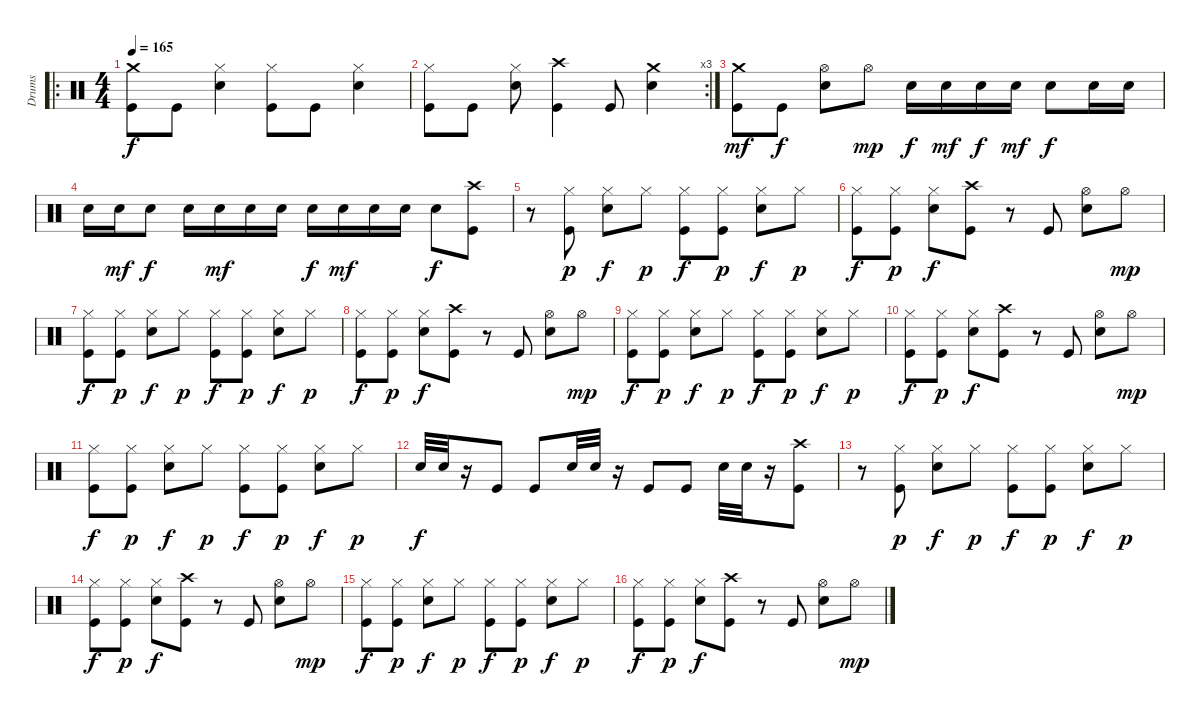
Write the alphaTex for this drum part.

\track ("Drums" "Drums") {instrument percussion}
\staff {score}
\articulation defaults
\ro
\ts (4 4)
\tempo 165
\clef neutral
\ks c
("Crash medium (hit)" "Kick (hit)").8{dy f} "Kick (hit)".8 ("Hi-Hat (closed)" "Snare (hit) 2").4 ("Hi-Hat (closed)" "Kick (hit)").8 "Kick (hit)".8 ("Hi-Hat (closed)" "Snare (hit) 2").4 |
\rc 3
("Hi-Hat (closed)" "Kick (hit)").8 "Kick (hit)".8 ("Hi-Hat (closed)" "Snare (hit) 2").8 ("Crash high (hit)" "Kick (hit)").4 "Kick (hit)".8 ("Crash medium (hit)" "Snare (hit) 2").4 |
("Crash medium (hit)" "Kick (hit)").8{dy mf} "Kick (hit)".8{dy f} ("Hi-Hat (open)" "Snare (hit) 2").8 "Hi-Hat (open)".8{dy mp} "Snare (hit) 2".16{dy f} "Snare (hit) 2".16{dy mf} "Snare (hit) 2".16{dy f} "Snare (hit) 2".16{dy mf} "Snare (hit) 2".8{dy f} "Snare (hit) 2".16 "Snare (hit) 2".16 |
"Snare (hit) 2".16 "Snare (hit) 2".16{dy mf} "Snare (hit) 2".8{dy f} "Snare (hit) 2".16 "Snare (hit) 2".16{dy mf} "Snare (hit) 2".16 "Snare (hit) 2".16 "Snare (hit) 2".16{dy f} "Snare (hit) 2".16{dy mf} "Snare (hit) 2".16 "Snare (hit) 2".16 "Snare (hit) 2".8{dy f} ("Crash high (hit)" "Kick (hit)").8 |
r.8 ("Hi-Hat (closed)" "Kick (hit)").8{dy p} ("Hi-Hat (closed)" "Snare (hit) 2").8{dy f} "Hi-Hat (closed)".8{dy p} ("Hi-Hat (closed)" "Kick (hit)").8{dy f} ("Hi-Hat (closed)" "Kick (hit)").8{dy p} ("Hi-Hat (closed)" "Snare (hit) 2").8{dy f} "Hi-Hat (closed)".8{dy p} |
("Hi-Hat (closed)" "Kick (hit)").8{dy f} ("Hi-Hat (closed)" "Kick (hit)").8{dy p} ("Hi-Hat (closed)" "Snare (hit) 2").8{dy f} ("Crash high (hit)" "Kick (hit)").8 r.8 "Kick (hit)".8 ("Hi-Hat (open)" "Snare (hit) 2").8 "Hi-Hat (open)".8{dy mp} |
("Hi-Hat (closed)" "Kick (hit)").8{dy f} ("Hi-Hat (closed)" "Kick (hit)").8{dy p} ("Hi-Hat (closed)" "Snare (hit) 2").8{dy f} "Hi-Hat (closed)".8{dy p} ("Hi-Hat (closed)" "Kick (hit)").8{dy f} ("Hi-Hat (closed)" "Kick (hit)").8{dy p} ("Hi-Hat (closed)" "Snare (hit) 2").8{dy f} "Hi-Hat (closed)".8{dy p} |
("Hi-Hat (closed)" "Kick (hit)").8{dy f} ("Hi-Hat (closed)" "Kick (hit)").8{dy p} ("Hi-Hat (closed)" "Snare (hit) 2").8{dy f} ("Crash high (hit)" "Kick (hit)").8 r.8 "Kick (hit)".8 ("Hi-Hat (open)" "Snare (hit) 2").8 "Hi-Hat (open)".8{dy mp} |
("Hi-Hat (closed)" "Kick (hit)").8{dy f} ("Hi-Hat (closed)" "Kick (hit)").8{dy p} ("Hi-Hat (closed)" "Snare (hit) 2").8{dy f} "Hi-Hat (closed)".8{dy p} ("Hi-Hat (closed)" "Kick (hit)").8{dy f} ("Hi-Hat (closed)" "Kick (hit)").8{dy p} ("Hi-Hat (closed)" "Snare (hit) 2").8{dy f} "Hi-Hat (closed)".8{dy p} |
("Hi-Hat (closed)" "Kick (hit)").8{dy f} ("Hi-Hat (closed)" "Kick (hit)").8{dy p} ("Hi-Hat (closed)" "Snare (hit) 2").8{dy f} ("Crash high (hit)" "Kick (hit)").8 r.8 "Kick (hit)".8 ("Hi-Hat (open)" "Snare (hit) 2").8 "Hi-Hat (open)".8{dy mp} |
("Hi-Hat (closed)" "Kick (hit)").8{dy f} ("Hi-Hat (closed)" "Kick (hit)").8{dy p} ("Hi-Hat (closed)" "Snare (hit) 2").8{dy f} "Hi-Hat (closed)".8{dy p} ("Hi-Hat (closed)" "Kick (hit)").8{dy f} ("Hi-Hat (closed)" "Kick (hit)").8{dy p} ("Hi-Hat (closed)" "Snare (hit) 2").8{dy f} "Hi-Hat (closed)".8{dy p} |
"Snare (hit) 2".32{dy f} "Snare (hit) 2".32 r.16 "Kick (hit)".8 "Kick (hit)".8 "Snare (hit) 2".32 "Snare (hit) 2".32 r.16 "Kick (hit)".8 "Kick (hit)".8 "Snare (hit) 2".32 "Snare (hit) 2".32 r.16 ("Crash high (hit)" "Kick (hit)").8 |
r.8 ("Hi-Hat (closed)" "Kick (hit)").8{dy p} ("Hi-Hat (closed)" "Snare (hit) 2").8{dy f} "Hi-Hat (closed)".8{dy p} ("Hi-Hat (closed)" "Kick (hit)").8{dy f} ("Hi-Hat (closed)" "Kick (hit)").8{dy p} ("Hi-Hat (closed)" "Snare (hit) 2").8{dy f} "Hi-Hat (closed)".8{dy p} |
("Hi-Hat (closed)" "Kick (hit)").8{dy f} ("Hi-Hat (closed)" "Kick (hit)").8{dy p} ("Hi-Hat (closed)" "Snare (hit) 2").8{dy f} ("Crash high (hit)" "Kick (hit)").8 r.8 "Kick (hit)".8 ("Hi-Hat (open)" "Snare (hit) 2").8 "Hi-Hat (open)".8{dy mp} |
("Hi-Hat (closed)" "Kick (hit)").8{dy f} ("Hi-Hat (closed)" "Kick (hit)").8{dy p} ("Hi-Hat (closed)" "Snare (hit) 2").8{dy f} "Hi-Hat (closed)".8{dy p} ("Hi-Hat (closed)" "Kick (hit)").8{dy f} ("Hi-Hat (closed)" "Kick (hit)").8{dy p} ("Hi-Hat (closed)" "Snare (hit) 2").8{dy f} "Hi-Hat (closed)".8{dy p} |
("Hi-Hat (closed)" "Kick (hit)").8{dy f} ("Hi-Hat (closed)" "Kick (hit)").8{dy p} ("Hi-Hat (closed)" "Snare (hit) 2").8{dy f} ("Crash high (hit)" "Kick (hit)").8 r.8 "Kick (hit)".8 ("Hi-Hat (open)" "Snare (hit) 2").8 "Hi-Hat (open)".8{dy mp}
